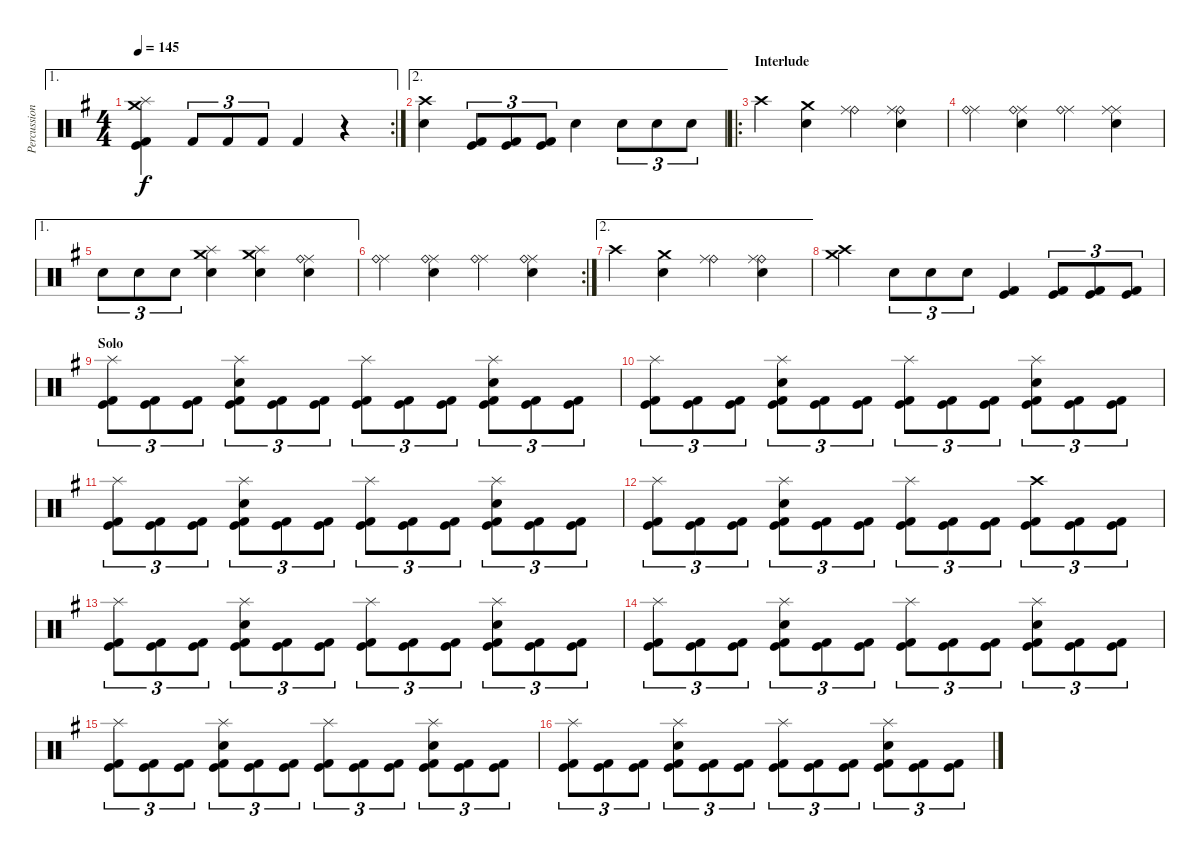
\track ("Percussion" "Percussion") {instrument percussion}
\staff {score}
\articulation defaults
\ae 1
\rc 2
\ts (4 4)
\tempo 145
\clef neutral
\ks eminor
("Splash (hit)" "Crash medium (hit)" "Kick (hit)" "Kick (hit) 2").4{dy f} "Kick (hit) 2".8{tu (3 2)} "Kick (hit) 2".8{tu (3 2)} "Kick (hit) 2".8{tu (3 2)} "Kick (hit) 2".4 r.4 |
\ae 2
("Crash high (hit)" "Electric Snare (hit)").4 ("Kick (hit)" "Kick (hit) 2").8{tu (3 2)} ("Kick (hit)" "Kick (hit) 2").8{tu (3 2)} ("Kick (hit)" "Kick (hit) 2").8{tu (3 2)} "Electric Snare (hit)".4 "Electric Snare (hit)".8{tu (3 2)} "Electric Snare (hit)".8{tu (3 2)} "Electric Snare (hit)".8{tu (3 2)} |
\ro
\section ("" "Interlude")
"Crash high (hit)".4 ("Crash medium (hit)" "Electric Snare (hit)").4 ("Ride (bell)" "Ride (middle)").4 ("Ride (bell)" "Ride (middle)" "Electric Snare (hit)").4 |
("Ride (middle)" "Ride (bell)").4 ("Ride (middle)" "Ride (bell)" "Electric Snare (hit)").4 ("Ride (middle)" "Ride (bell)").4 ("Ride (middle)" "Ride (middle)" "Electric Snare (hit)").4 |
\ae 1 "Electric Snare (hit)".8{tu (3 2)} "Electric Snare (hit)".8{tu (3 2)} "Electric Snare (hit)".8{tu (3 2)}
("Splash (hit)" "Crash medium (hit)" "Electric Snare (hit)").4 ("Splash (hit)" "Crash medium (hit)" "Electric Snare (hit)").4 ("Ride (middle)" "Ride (bell)" "Electric Snare (hit)").4 |
\rc 2
("Ride (middle)" "Ride (bell)").4 ("Ride (middle)" "Ride (bell)" "Electric Snare (hit)").4 ("Ride (middle)" "Ride (bell)").4 ("Ride (middle)" "Ride (bell)" "Electric Snare (hit)").4 |
\ae 2 "Crash high (hit)".4
("Crash medium (hit)" "Electric Snare (hit)").4 ("Ride (bell)" "Ride (middle)").4 ("Ride (bell)" "Ride (middle)" "Electric Snare (hit)").4 |
("Crash high (hit)" "Crash medium (hit)").4 "Electric Snare (hit)".8{tu (3 2)} "Electric Snare (hit)".8{tu (3 2)} "Electric Snare (hit)".8{tu (3 2)} ("Kick (hit)" "Kick (hit) 2").4 ("Kick (hit)" "Kick (hit) 2").8{tu (3 2)} ("Kick (hit)" "Kick (hit) 2").8{tu (3 2)} ("Kick (hit)" "Kick (hit) 2").8{tu (3 2)} |
\section ("" "Solo")
("Splash (hit)" "Kick (hit)" "Kick (hit) 2").8{tu (3 2)} ("Kick (hit)" "Kick (hit) 2").8{tu (3 2)} ("Kick (hit)" "Kick (hit) 2").8{tu (3 2)} ("Electric Snare (hit)" "Splash (hit)" "Kick (hit)" "Kick (hit) 2").8{tu (3 2)} ("Kick (hit)" "Kick (hit) 2").8{tu (3 2)} ("Kick (hit)" "Kick (hit) 2").8{tu (3 2)} ("Splash (hit)" "Kick (hit)" "Kick (hit) 2").8{tu (3 2)} ("Kick (hit)" "Kick (hit) 2").8{tu (3 2)} ("Kick (hit)" "Kick (hit) 2").8{tu (3 2)} ("Electric Snare (hit)" "Splash (hit)" "Kick (hit)" "Kick (hit) 2").8{tu (3 2)} ("Kick (hit)" "Kick (hit) 2").8{tu (3 2)} ("Kick (hit)" "Kick (hit) 2").8{tu (3 2)} |
("Splash (hit)" "Kick (hit)" "Kick (hit) 2").8{tu (3 2)} ("Kick (hit)" "Kick (hit) 2").8{tu (3 2)} ("Kick (hit)" "Kick (hit) 2").8{tu (3 2)} ("Electric Snare (hit)" "Splash (hit)" "Kick (hit)" "Kick (hit) 2").8{tu (3 2)} ("Kick (hit)" "Kick (hit) 2").8{tu (3 2)} ("Kick (hit)" "Kick (hit) 2").8{tu (3 2)} ("Splash (hit)" "Kick (hit)" "Kick (hit) 2").8{tu (3 2)} ("Kick (hit)" "Kick (hit) 2").8{tu (3 2)} ("Kick (hit)" "Kick (hit) 2").8{tu (3 2)} ("Electric Snare (hit)" "Splash (hit)" "Kick (hit)" "Kick (hit) 2").8{tu (3 2)} ("Kick (hit)" "Kick (hit) 2").8{tu (3 2)} ("Kick (hit)" "Kick (hit) 2").8{tu (3 2)} |
("Splash (hit)" "Kick (hit)" "Kick (hit) 2").8{tu (3 2)} ("Kick (hit)" "Kick (hit) 2").8{tu (3 2)} ("Kick (hit)" "Kick (hit) 2").8{tu (3 2)} ("Electric Snare (hit)" "Splash (hit)" "Kick (hit)" "Kick (hit) 2").8{tu (3 2)} ("Kick (hit)" "Kick (hit) 2").8{tu (3 2)} ("Kick (hit)" "Kick (hit) 2").8{tu (3 2)} ("Splash (hit)" "Kick (hit)" "Kick (hit) 2").8{tu (3 2)} ("Kick (hit)" "Kick (hit) 2").8{tu (3 2)} ("Kick (hit)" "Kick (hit) 2").8{tu (3 2)} ("Electric Snare (hit)" "Splash (hit)" "Kick (hit)" "Kick (hit) 2").8{tu (3 2)} ("Kick (hit)" "Kick (hit) 2").8{tu (3 2)} ("Kick (hit)" "Kick (hit) 2").8{tu (3 2)} |
("Splash (hit)" "Kick (hit)" "Kick (hit) 2").8{tu (3 2)} ("Kick (hit)" "Kick (hit) 2").8{tu (3 2)} ("Kick (hit)" "Kick (hit) 2").8{tu (3 2)} ("Electric Snare (hit)" "Splash (hit)" "Kick (hit)" "Kick (hit) 2").8{tu (3 2)} ("Kick (hit)" "Kick (hit) 2").8{tu (3 2)} ("Kick (hit)" "Kick (hit) 2").8{tu (3 2)} ("Splash (hit)" "Kick (hit)" "Kick (hit) 2").8{tu (3 2)} ("Kick (hit)" "Kick (hit) 2").8{tu (3 2)} ("Kick (hit)" "Kick (hit) 2").8{tu (3 2)} ("Crash high (hit)" "Kick (hit)" "Kick (hit) 2").8{tu (3 2)} ("Kick (hit)" "Kick (hit) 2").8{tu (3 2)} ("Kick (hit)" "Kick (hit) 2").8{tu (3 2)} |
("Splash (hit)" "Kick (hit)" "Kick (hit) 2").8{tu (3 2)} ("Kick (hit)" "Kick (hit) 2").8{tu (3 2)} ("Kick (hit)" "Kick (hit) 2").8{tu (3 2)} ("Electric Snare (hit)" "Splash (hit)" "Kick (hit)" "Kick (hit) 2").8{tu (3 2)} ("Kick (hit)" "Kick (hit) 2").8{tu (3 2)} ("Kick (hit)" "Kick (hit) 2").8{tu (3 2)} ("Splash (hit)" "Kick (hit)" "Kick (hit) 2").8{tu (3 2)} ("Kick (hit)" "Kick (hit) 2").8{tu (3 2)} ("Kick (hit)" "Kick (hit) 2").8{tu (3 2)} ("Electric Snare (hit)" "Splash (hit)" "Kick (hit)" "Kick (hit) 2").8{tu (3 2)} ("Kick (hit)" "Kick (hit) 2").8{tu (3 2)} ("Kick (hit)" "Kick (hit) 2").8{tu (3 2)} |
("Splash (hit)" "Kick (hit)" "Kick (hit) 2").8{tu (3 2)} ("Kick (hit)" "Kick (hit) 2").8{tu (3 2)} ("Kick (hit)" "Kick (hit) 2").8{tu (3 2)} ("Electric Snare (hit)" "Splash (hit)" "Kick (hit)" "Kick (hit) 2").8{tu (3 2)} ("Kick (hit)" "Kick (hit) 2").8{tu (3 2)} ("Kick (hit)" "Kick (hit) 2").8{tu (3 2)} ("Splash (hit)" "Kick (hit)" "Kick (hit) 2").8{tu (3 2)} ("Kick (hit)" "Kick (hit) 2").8{tu (3 2)} ("Kick (hit)" "Kick (hit) 2").8{tu (3 2)} ("Electric Snare (hit)" "Splash (hit)" "Kick (hit)" "Kick (hit) 2").8{tu (3 2)} ("Kick (hit)" "Kick (hit) 2").8{tu (3 2)} ("Kick (hit)" "Kick (hit) 2").8{tu (3 2)} |
("Splash (hit)" "Kick (hit)" "Kick (hit) 2").8{tu (3 2)} ("Kick (hit)" "Kick (hit) 2").8{tu (3 2)} ("Kick (hit)" "Kick (hit) 2").8{tu (3 2)} ("Electric Snare (hit)" "Splash (hit)" "Kick (hit)" "Kick (hit) 2").8{tu (3 2)} ("Kick (hit)" "Kick (hit) 2").8{tu (3 2)} ("Kick (hit)" "Kick (hit) 2").8{tu (3 2)} ("Splash (hit)" "Kick (hit)" "Kick (hit) 2").8{tu (3 2)} ("Kick (hit)" "Kick (hit) 2").8{tu (3 2)} ("Kick (hit)" "Kick (hit) 2").8{tu (3 2)} ("Electric Snare (hit)" "Splash (hit)" "Kick (hit)" "Kick (hit) 2").8{tu (3 2)} ("Kick (hit)" "Kick (hit) 2").8{tu (3 2)} ("Kick (hit)" "Kick (hit) 2").8{tu (3 2)} |
("Splash (hit)" "Kick (hit)" "Kick (hit) 2").8{tu (3 2)} ("Kick (hit)" "Kick (hit) 2").8{tu (3 2)} ("Kick (hit)" "Kick (hit) 2").8{tu (3 2)} ("Electric Snare (hit)" "Splash (hit)" "Kick (hit)" "Kick (hit) 2").8{tu (3 2)} ("Kick (hit)" "Kick (hit) 2").8{tu (3 2)} ("Kick (hit)" "Kick (hit) 2").8{tu (3 2)} ("Splash (hit)" "Kick (hit)" "Kick (hit) 2").8{tu (3 2)} ("Kick (hit)" "Kick (hit) 2").8{tu (3 2)} ("Kick (hit)" "Kick (hit) 2").8{tu (3 2)} ("Electric Snare (hit)" "Splash (hit)" "Kick (hit)" "Kick (hit) 2").8{tu (3 2)} ("Kick (hit)" "Kick (hit) 2").8{tu (3 2)} ("Kick (hit)" "Kick (hit) 2").8{tu (3 2)}
